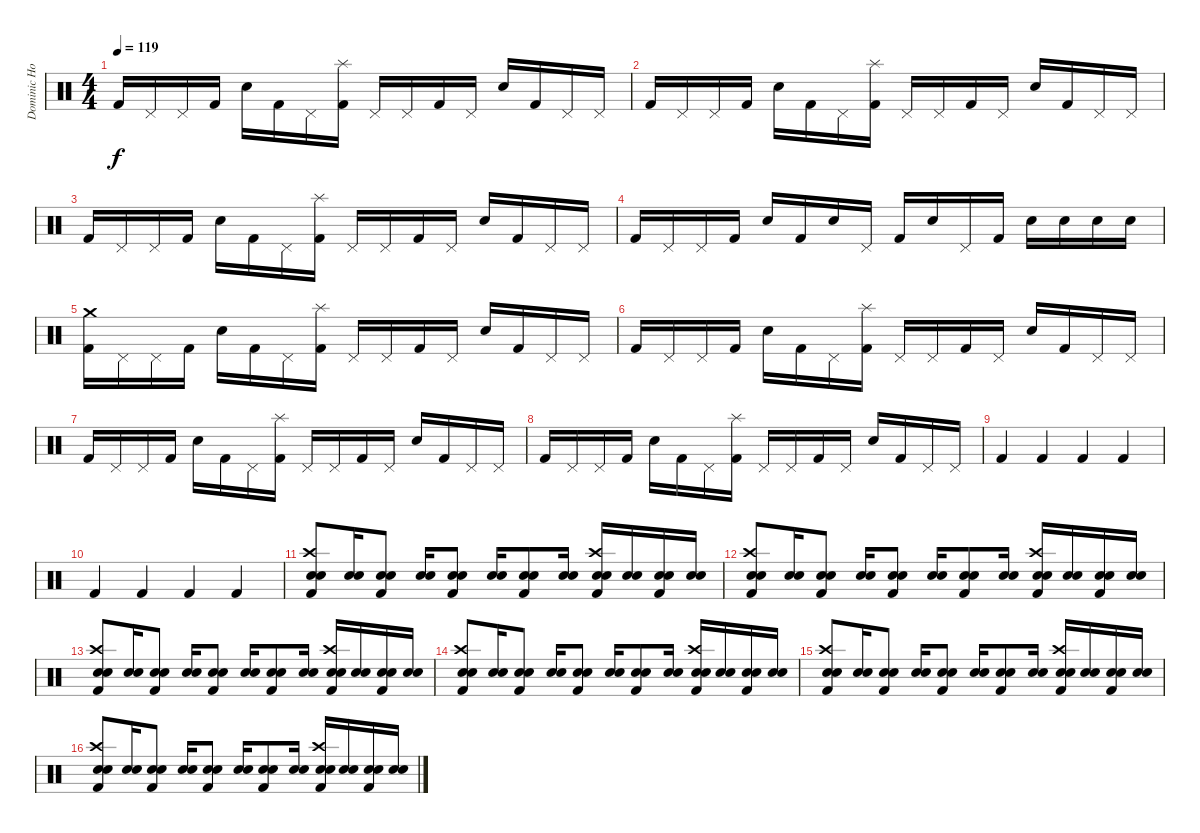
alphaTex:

\track ("Dominic Howard" "Dominic Ho") {instrument percussion}
\staff {score}
\articulation defaults
\ts (4 4)
\tempo 119
\clef neutral
\ks c "Kick (hit) 2".16{dy f} "Pedal Hi-Hat (hit)".16 "Pedal Hi-Hat (hit)".16 "Kick (hit) 2".16 "Electric Snare (hit)".16 "Kick (hit) 2".16 "Pedal Hi-Hat (hit)".16
("Splash (hit)" "Kick (hit) 2").16 "Pedal Hi-Hat (hit)".16 "Pedal Hi-Hat (hit)".16 "Kick (hit) 2".16 "Pedal Hi-Hat (hit)".16 "Electric Snare (hit)".16 "Kick (hit) 2".16 "Pedal Hi-Hat (hit)".16 "Pedal Hi-Hat (hit)".16 |
"Kick (hit) 2".16 "Pedal Hi-Hat (hit)".16 "Pedal Hi-Hat (hit)".16 "Kick (hit) 2".16 "Electric Snare (hit)".16 "Kick (hit) 2".16 "Pedal Hi-Hat (hit)".16 ("Splash (hit)" "Kick (hit) 2").16 "Pedal Hi-Hat (hit)".16 "Pedal Hi-Hat (hit)".16 "Kick (hit) 2".16 "Pedal Hi-Hat (hit)".16 "Electric Snare (hit)".16 "Kick (hit) 2".16 "Pedal Hi-Hat (hit)".16 "Pedal Hi-Hat (hit)".16 |
"Kick (hit) 2".16 "Pedal Hi-Hat (hit)".16 "Pedal Hi-Hat (hit)".16 "Kick (hit) 2".16 "Electric Snare (hit)".16 "Kick (hit) 2".16 "Pedal Hi-Hat (hit)".16 ("Splash (hit)" "Kick (hit) 2").16 "Pedal Hi-Hat (hit)".16 "Pedal Hi-Hat (hit)".16 "Kick (hit) 2".16 "Pedal Hi-Hat (hit)".16 "Electric Snare (hit)".16 "Kick (hit) 2".16 "Pedal Hi-Hat (hit)".16 "Pedal Hi-Hat (hit)".16 |
"Kick (hit) 2".16 "Pedal Hi-Hat (hit)".16 "Pedal Hi-Hat (hit)".16 "Kick (hit) 2".16 "Electric Snare (hit)".16 "Kick (hit) 2".16 "Electric Snare (hit)".16 "Pedal Hi-Hat (hit)".16 "Kick (hit) 2".16 "Electric Snare (hit)".16 "Pedal Hi-Hat (hit)".16 "Kick (hit) 2".16 "Electric Snare (hit)".16 "Electric Snare (hit)".16 "Electric Snare (hit)".16 "Electric Snare (hit)".16 |
("Crash medium (hit)" "Kick (hit) 2").16 "Pedal Hi-Hat (hit)".16 "Pedal Hi-Hat (hit)".16 "Kick (hit) 2".16 "Electric Snare (hit)".16 "Kick (hit) 2".16 "Pedal Hi-Hat (hit)".16 ("Splash (hit)" "Kick (hit) 2").16 "Pedal Hi-Hat (hit)".16 "Pedal Hi-Hat (hit)".16 "Kick (hit) 2".16 "Pedal Hi-Hat (hit)".16 "Electric Snare (hit)".16 "Kick (hit) 2".16 "Pedal Hi-Hat (hit)".16 "Pedal Hi-Hat (hit)".16 |
"Kick (hit) 2".16 "Pedal Hi-Hat (hit)".16 "Pedal Hi-Hat (hit)".16 "Kick (hit) 2".16 "Electric Snare (hit)".16 "Kick (hit) 2".16 "Pedal Hi-Hat (hit)".16 ("Splash (hit)" "Kick (hit) 2").16 "Pedal Hi-Hat (hit)".16 "Pedal Hi-Hat (hit)".16 "Kick (hit) 2".16 "Pedal Hi-Hat (hit)".16 "Electric Snare (hit)".16 "Kick (hit) 2".16 "Pedal Hi-Hat (hit)".16 "Pedal Hi-Hat (hit)".16 |
"Kick (hit) 2".16 "Pedal Hi-Hat (hit)".16 "Pedal Hi-Hat (hit)".16 "Kick (hit) 2".16 "Electric Snare (hit)".16 "Kick (hit) 2".16 "Pedal Hi-Hat (hit)".16 ("Splash (hit)" "Kick (hit) 2").16 "Pedal Hi-Hat (hit)".16 "Pedal Hi-Hat (hit)".16 "Kick (hit) 2".16 "Pedal Hi-Hat (hit)".16 "Electric Snare (hit)".16 "Kick (hit) 2".16 "Pedal Hi-Hat (hit)".16 "Pedal Hi-Hat (hit)".16 |
"Kick (hit) 2".16 "Pedal Hi-Hat (hit)".16 "Pedal Hi-Hat (hit)".16 "Kick (hit) 2".16 "Electric Snare (hit)".16 "Kick (hit) 2".16 "Pedal Hi-Hat (hit)".16 ("Splash (hit)" "Kick (hit) 2").16 "Pedal Hi-Hat (hit)".16 "Pedal Hi-Hat (hit)".16 "Kick (hit) 2".16 "Pedal Hi-Hat (hit)".16 "Electric Snare (hit)".16 "Kick (hit) 2".16 "Pedal Hi-Hat (hit)".16 "Pedal Hi-Hat (hit)".16 |
"Kick (hit) 2".4 "Kick (hit) 2".4 "Kick (hit) 2".4 "Kick (hit) 2".4 |
"Kick (hit) 2".4 "Kick (hit) 2".4 "Kick (hit) 2".4 "Kick (hit) 2".4 |
("Crash high (hit)" "Electric Snare (hit)" "Snare (hit) 2" "Kick (hit) 2").8 ("Electric Snare (hit)" "Snare (hit) 2").16 ("Electric Snare (hit)" "Snare (hit) 2" "Kick (hit) 2").8 ("Electric Snare (hit)" "Snare (hit) 2").16 ("Electric Snare (hit)" "Snare (hit) 2" "Kick (hit) 2").8 ("Electric Snare (hit)" "Snare (hit) 2").16 ("Electric Snare (hit)" "Snare (hit) 2" "Kick (hit) 2").8 ("Electric Snare (hit)" "Snare (hit) 2").16 ("Crash high (hit)" "Electric Snare (hit)" "Snare (hit) 2" "Kick (hit) 2").16 ("Electric Snare (hit)" "Snare (hit) 2").16 ("Electric Snare (hit)" "Snare (hit) 2" "Kick (hit) 2").16 ("Electric Snare (hit)" "Snare (hit) 2").16 |
("Crash high (hit)" "Electric Snare (hit)" "Snare (hit) 2" "Kick (hit) 2").8 ("Electric Snare (hit)" "Snare (hit) 2").16 ("Electric Snare (hit)" "Snare (hit) 2" "Kick (hit) 2").8 ("Electric Snare (hit)" "Snare (hit) 2").16 ("Electric Snare (hit)" "Snare (hit) 2" "Kick (hit) 2").8 ("Electric Snare (hit)" "Snare (hit) 2").16 ("Electric Snare (hit)" "Snare (hit) 2" "Kick (hit) 2").8 ("Electric Snare (hit)" "Snare (hit) 2").16 ("Crash high (hit)" "Electric Snare (hit)" "Snare (hit) 2" "Kick (hit) 2").16 ("Electric Snare (hit)" "Snare (hit) 2").16 ("Electric Snare (hit)" "Snare (hit) 2" "Kick (hit) 2").16 ("Electric Snare (hit)" "Snare (hit) 2").16 |
("Crash high (hit)" "Electric Snare (hit)" "Snare (hit) 2" "Kick (hit) 2").8 ("Electric Snare (hit)" "Snare (hit) 2").16 ("Electric Snare (hit)" "Snare (hit) 2" "Kick (hit) 2").8 ("Electric Snare (hit)" "Snare (hit) 2").16 ("Electric Snare (hit)" "Snare (hit) 2" "Kick (hit) 2").8 ("Electric Snare (hit)" "Snare (hit) 2").16 ("Electric Snare (hit)" "Snare (hit) 2" "Kick (hit) 2").8 ("Electric Snare (hit)" "Snare (hit) 2").16 ("Crash high (hit)" "Electric Snare (hit)" "Snare (hit) 2" "Kick (hit) 2").16 ("Electric Snare (hit)" "Snare (hit) 2").16 ("Electric Snare (hit)" "Snare (hit) 2" "Kick (hit) 2").16 ("Electric Snare (hit)" "Snare (hit) 2").16 |
("Crash high (hit)" "Electric Snare (hit)" "Snare (hit) 2" "Kick (hit) 2").8 ("Electric Snare (hit)" "Snare (hit) 2").16 ("Electric Snare (hit)" "Snare (hit) 2" "Kick (hit) 2").8 ("Electric Snare (hit)" "Snare (hit) 2").16 ("Electric Snare (hit)" "Snare (hit) 2" "Kick (hit) 2").8 ("Electric Snare (hit)" "Snare (hit) 2").16 ("Electric Snare (hit)" "Snare (hit) 2" "Kick (hit) 2").8 ("Electric Snare (hit)" "Snare (hit) 2").16 ("Crash high (hit)" "Electric Snare (hit)" "Snare (hit) 2" "Kick (hit) 2").16 ("Electric Snare (hit)" "Snare (hit) 2").16 ("Electric Snare (hit)" "Snare (hit) 2" "Kick (hit) 2").16 ("Electric Snare (hit)" "Snare (hit) 2").16 |
("Crash high (hit)" "Electric Snare (hit)" "Snare (hit) 2" "Kick (hit) 2").8 ("Electric Snare (hit)" "Snare (hit) 2").16 ("Electric Snare (hit)" "Snare (hit) 2" "Kick (hit) 2").8 ("Electric Snare (hit)" "Snare (hit) 2").16 ("Electric Snare (hit)" "Snare (hit) 2" "Kick (hit) 2").8 ("Electric Snare (hit)" "Snare (hit) 2").16 ("Electric Snare (hit)" "Snare (hit) 2" "Kick (hit) 2").8 ("Electric Snare (hit)" "Snare (hit) 2").16 ("Crash high (hit)" "Electric Snare (hit)" "Snare (hit) 2" "Kick (hit) 2").16 ("Electric Snare (hit)" "Snare (hit) 2").16 ("Electric Snare (hit)" "Snare (hit) 2" "Kick (hit) 2").16 ("Electric Snare (hit)" "Snare (hit) 2").16 |
("Crash high (hit)" "Electric Snare (hit)" "Snare (hit) 2" "Kick (hit) 2").8 ("Electric Snare (hit)" "Snare (hit) 2").16 ("Electric Snare (hit)" "Snare (hit) 2" "Kick (hit) 2").8 ("Electric Snare (hit)" "Snare (hit) 2").16 ("Electric Snare (hit)" "Snare (hit) 2" "Kick (hit) 2").8 ("Electric Snare (hit)" "Snare (hit) 2").16 ("Electric Snare (hit)" "Snare (hit) 2" "Kick (hit) 2").8 ("Electric Snare (hit)" "Snare (hit) 2").16 ("Crash high (hit)" "Electric Snare (hit)" "Snare (hit) 2" "Kick (hit) 2").16 ("Electric Snare (hit)" "Snare (hit) 2").16 ("Electric Snare (hit)" "Snare (hit) 2" "Kick (hit) 2").16 ("Electric Snare (hit)" "Snare (hit) 2").16
